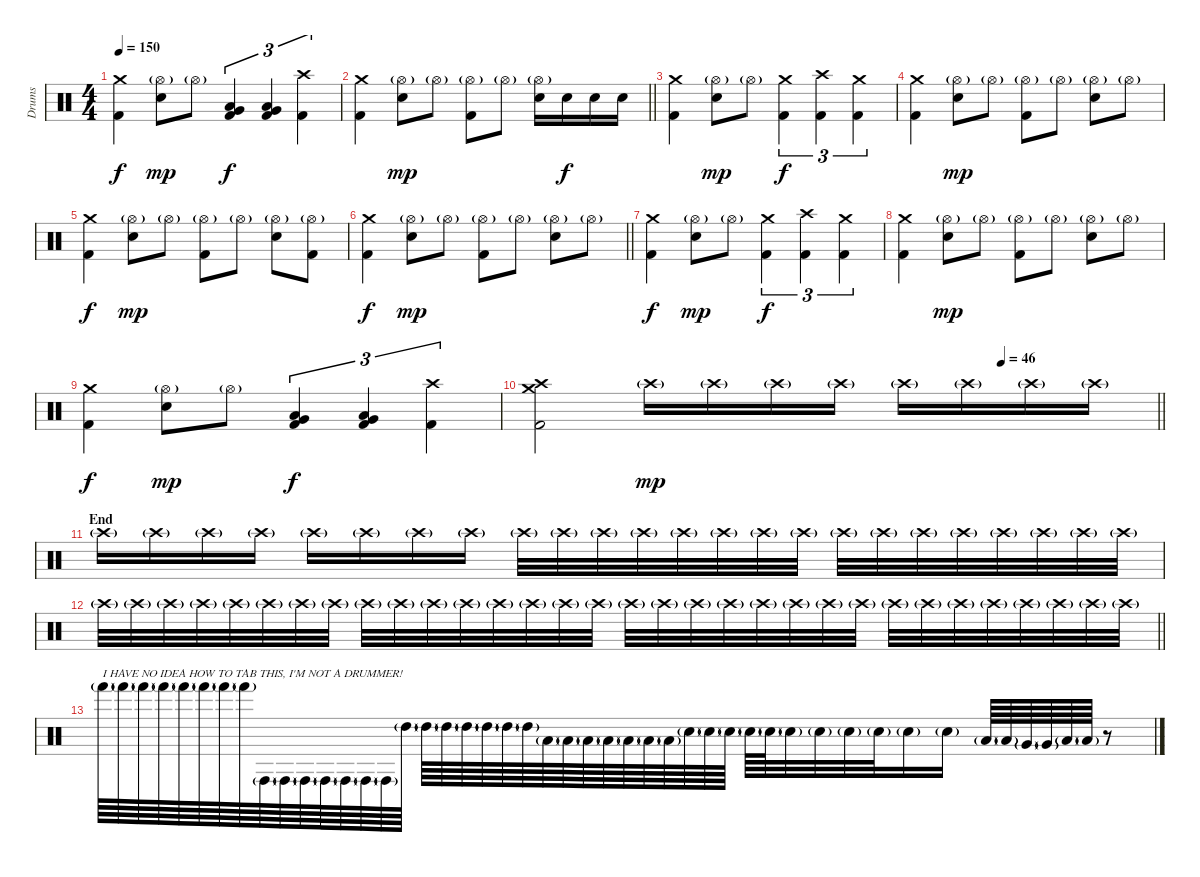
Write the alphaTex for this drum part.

\track ("Drums" "Drums") {instrument percussion}
\staff {score}
\articulation defaults
\ts (4 4)
\tempo 150
\clef neutral
\ks c
("Kick (hit) 2" "Crash medium (hit)").4{dy f} ("Snare (hit) 2" "Hi-Hat (open)"{g}).8{dy mp} "Hi-Hat (open)"{g}.8 ("Kick (hit) 2" "Low Tom (hit)" "Very Low Tom (hit)").4{tu (3 2) dy f} ("Kick (hit) 2" "Very Low Tom (hit)" "Low Floor Tom (hit)").4{tu (3 2)} ("Kick (hit) 2" "Crash high (hit)").4{tu (3 2)} |
\barLineRight lightlight
("Kick (hit) 2" "Crash medium (hit)").4 ("Snare (hit) 2" "Hi-Hat (open)"{g}).8{dy mp} "Hi-Hat (open)"{g}.8 ("Kick (hit) 2" "Hi-Hat (open)"{g}).8 "Hi-Hat (open)"{g}.8 ("Snare (hit) 2" "Hi-Hat (open)"{g}).16 "Snare (hit) 2".16{dy f} "Snare (hit) 2".16 "Snare (hit) 2".16 |
\section ("" "")
("Kick (hit) 2" "Crash medium (hit)").4 ("Snare (hit) 2" "Hi-Hat (open)"{g}).8{dy mp} "Hi-Hat (open)"{g}.8 ("Kick (hit) 2" "Crash medium (hit)").4{tu (3 2) dy f} ("Kick (hit) 2" "Crash high (hit)").4{tu (3 2)} ("Kick (hit) 2" "Crash medium (hit)").4{tu (3 2)} |
("Kick (hit) 2" "Crash medium (hit)").4 ("Snare (hit) 2" "Hi-Hat (open)"{g}).8{dy mp} "Hi-Hat (open)"{g}.8 ("Kick (hit) 2" "Hi-Hat (open)"{g}).8 "Hi-Hat (open)"{g}.8 ("Snare (hit) 2" "Hi-Hat (open)"{g}).8 "Hi-Hat (open)"{g}.8 |
("Kick (hit) 2" "Crash medium (hit)").4{dy f} ("Snare (hit) 2" "Hi-Hat (open)"{g}).8{dy mp} "Hi-Hat (open)"{g}.8 ("Kick (hit) 2" "Hi-Hat (open)"{g}).8 "Hi-Hat (open)"{g}.8 ("Snare (hit) 2" "Hi-Hat (open)"{g}).8 ("Kick (hit) 2" "Hi-Hat (open)"{g}).8 |
\barLineRight lightlight
("Kick (hit) 2" "Crash medium (hit)").4{dy f} ("Snare (hit) 2" "Hi-Hat (open)"{g}).8{dy mp} "Hi-Hat (open)"{g}.8 ("Kick (hit) 2" "Hi-Hat (open)"{g}).8 "Hi-Hat (open)"{g}.8 ("Snare (hit) 2" "Hi-Hat (open)"{g}).8 "Hi-Hat (open)"{g}.8 |
\section ("" "")
("Kick (hit) 2" "Crash medium (hit)").4{dy f} ("Snare (hit) 2" "Hi-Hat (open)"{g}).8{dy mp} "Hi-Hat (open)"{g}.8 ("Kick (hit) 2" "Crash medium (hit)").4{tu (3 2) dy f} ("Kick (hit) 2" "Crash high (hit)").4{tu (3 2)} ("Kick (hit) 2" "Crash medium (hit)").4{tu (3 2)} |
("Kick (hit) 2" "Crash medium (hit)").4 ("Snare (hit) 2" "Hi-Hat (open)"{g}).8{dy mp} "Hi-Hat (open)"{g}.8 ("Kick (hit) 2" "Hi-Hat (open)"{g}).8 "Hi-Hat (open)"{g}.8 ("Snare (hit) 2" "Hi-Hat (open)"{g}).8 "Hi-Hat (open)"{g}.8 |
("Kick (hit) 2" "Crash medium (hit)").4{dy f} ("Snare (hit) 2" "Hi-Hat (open)"{g}).8{dy mp} "Hi-Hat (open)"{g}.8 ("Kick (hit) 2" "Low Tom (hit)" "Very Low Tom (hit)").4{tu (3 2) dy f} ("Kick (hit) 2" "Very Low Tom (hit)" "Low Floor Tom (hit)").4{tu (3 2)} ("Kick (hit) 2" "Crash high (hit)").4{tu (3 2)} |
\tempo (46 0.75)
\barLineRight lightlight
("Kick (hit) 2" "Crash high (hit)" "Crash medium (hit)").2 "Crash high (hit)"{g}.16{dy mp} "Crash high (hit)"{g}.16 "Crash high (hit)"{g}.16 "Crash high (hit)"{g}.16 "Crash high (hit)"{g}.16 "Crash high (hit)"{g}.16 "Crash high (hit)"{g}.16 "Crash high (hit)"{g}.16 |
\section ("" "End")
"Crash high (hit)"{g}.16 "Crash high (hit)"{g}.16 "Crash high (hit)"{g}.16 "Crash high (hit)"{g}.16 "Crash high (hit)"{g}.16 "Crash high (hit)"{g}.16 "Crash high (hit)"{g}.16 "Crash high (hit)"{g}.16 "Crash high (hit)"{g}.32 "Crash high (hit)"{g}.32 "Crash high (hit)"{g}.32 "Crash high (hit)"{g}.32 "Crash high (hit)"{g}.32 "Crash high (hit)"{g}.32 "Crash high (hit)"{g}.32 "Crash high (hit)"{g}.32 "Crash high (hit)"{g}.32 "Crash high (hit)"{g}.32 "Crash high (hit)"{g}.32 "Crash high (hit)"{g}.32 "Crash high (hit)"{g}.32 "Crash high (hit)"{g}.32 "Crash high (hit)"{g}.32 "Crash high (hit)"{g}.32 |
\barLineRight lightlight "Crash high (hit)"{g}.32 "Crash high (hit)"{g}.32 "Crash high (hit)"{g}.32 "Crash high (hit)"{g}.32 "Crash high (hit)"{g}.32 "Crash high (hit)"{g}.32 "Crash high (hit)"{g}.32 "Crash high (hit)"{g}.32 "Crash high (hit)"{g}.32 "Crash high (hit)"{g}.32 "Crash high (hit)"{g}.32 "Crash high (hit)"{g}.32 "Crash high (hit)"{g}.32 "Crash high (hit)"{g}.32 "Crash high (hit)"{g}.32 "Crash high (hit)"{g}.32 "Crash high (hit)"{g}.32 "Crash high (hit)"{g}.32 "Crash high (hit)"{g}.32 "Crash high (hit)"{g}.32 "Crash high (hit)"{g}.32 "Crash high (hit)"{g}.32 "Crash high (hit)"{g}.32 "Crash high (hit)"{g}.32 "Crash high (hit)"{g}.32 "Crash high (hit)"{g}.32 "Crash high (hit)"{g}.32 "Crash high (hit)"{g}.32 "Crash high (hit)"{g}.32 "Crash high (hit)"{g}.32 "Crash high (hit)"{g}.32 "Crash high (hit)"{g}.32
|
"Hand (hit)"{g}.64{txt "I HAVE NO IDEA HOW TO TAB THIS, I'M NOT A DRUMMER!"} "Hand (hit)"{g}.64 "Hand (hit)"{g}.64 "Hand (hit)"{g}.64 "Hand (hit)"{g}.64 "Hand (hit)"{g}.64 "Hand (hit)"{g}.64 "Hand (hit)"{g}.64 "Conga high (hit)"{g}.64 "Conga high (hit)"{g}.64 "Conga high (hit)"{g}.64 "Conga high (hit)"{g}.64 "Conga high (hit)"{g}.64 "Conga high (hit)"{g}.64 "Conga high (hit)"{g}.64 "High Tom (hit)"{g}.64 "High Tom (hit)"{g}.64 "High Tom (hit)"{g}.64 "High Tom (hit)"{g}.64 "High Tom (hit)"{g}.64 "High Tom (hit)"{g}.64 "High Tom (hit)"{g}.64 "Low Tom (hit)"{g}.64 "Low Tom (hit)"{g}.64 "Low Tom (hit)"{g}.64 "Low Tom (hit)"{g}.64 "Low Tom (hit)"{g}.64 "Low Tom (hit)"{g}.64 "Low Tom (hit)"{g}.64 "Snare (hit) 2"{g}.64 "Snare (hit) 2"{g}.64 "Snare (hit) 2"{g}.64 "Snare (hit) 2"{g}.64 "Snare (hit) 2"{g}.64 "Snare (hit) 2"{g}.32 "Snare (hit) 2"{g}.32 "Snare (hit) 2"{g}.32 "Snare (hit) 2"{g}.32 "Snare (hit) 2"{g}.16 "Snare (hit) 2"{g}.16 "Low Tom (hit)"{g}.64 "Low Tom (hit)"{g}.64 "Very Low Tom (hit)"{g}.64 "Very Low Tom (hit)"{g}.64 "Low Floor Tom (hit)"{g}.64 "Low Floor Tom (hit)"{g}.64 r.8
